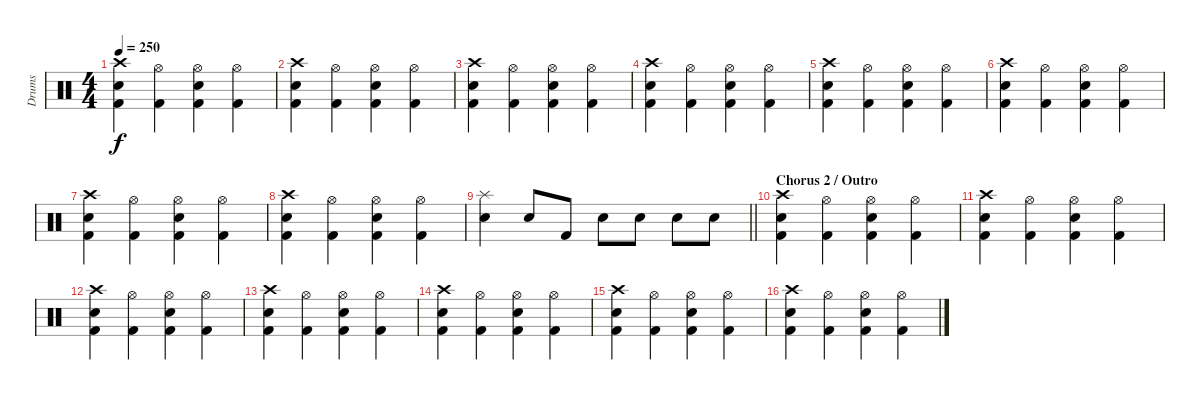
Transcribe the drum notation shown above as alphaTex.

\track ("Drums" "Drums") {instrument percussion}
\staff {score}
\articulation defaults
\ts (4 4)
\tempo 250
\clef neutral
\ks c
("Crash high (hit)" "Electric Snare (hit)" "Kick (hit) 2").4{dy f} ("Hi-Hat (open)" "Kick (hit) 2").4 ("Hi-Hat (open)" "Electric Snare (hit)" "Kick (hit) 2").4 ("Hi-Hat (open)" "Kick (hit) 2").4 |
("Crash high (hit)" "Electric Snare (hit)" "Kick (hit) 2").4 ("Hi-Hat (open)" "Kick (hit) 2").4 ("Hi-Hat (open)" "Electric Snare (hit)" "Kick (hit) 2").4 ("Hi-Hat (open)" "Kick (hit) 2").4 |
("Crash high (hit)" "Electric Snare (hit)" "Kick (hit) 2").4 ("Hi-Hat (open)" "Kick (hit) 2").4 ("Hi-Hat (open)" "Electric Snare (hit)" "Kick (hit) 2").4 ("Hi-Hat (open)" "Kick (hit) 2").4 |
("Crash high (hit)" "Electric Snare (hit)" "Kick (hit) 2").4 ("Hi-Hat (open)" "Kick (hit) 2").4 ("Hi-Hat (open)" "Electric Snare (hit)" "Kick (hit) 2").4 ("Hi-Hat (open)" "Kick (hit) 2").4 |
("Crash high (hit)" "Electric Snare (hit)" "Kick (hit) 2").4 ("Hi-Hat (open)" "Kick (hit) 2").4 ("Hi-Hat (open)" "Electric Snare (hit)" "Kick (hit) 2").4 ("Hi-Hat (open)" "Kick (hit) 2").4 |
("Crash high (hit)" "Electric Snare (hit)" "Kick (hit) 2").4 ("Hi-Hat (open)" "Kick (hit) 2").4 ("Hi-Hat (open)" "Electric Snare (hit)" "Kick (hit) 2").4 ("Hi-Hat (open)" "Kick (hit) 2").4 |
("Crash high (hit)" "Electric Snare (hit)" "Kick (hit) 2").4 ("Hi-Hat (open)" "Kick (hit) 2").4 ("Hi-Hat (open)" "Electric Snare (hit)" "Kick (hit) 2").4 ("Hi-Hat (open)" "Kick (hit) 2").4 |
("Crash high (hit)" "Electric Snare (hit)" "Kick (hit) 2").4 ("Hi-Hat (open)" "Kick (hit) 2").4 ("Hi-Hat (open)" "Electric Snare (hit)" "Kick (hit) 2").4 ("Hi-Hat (open)" "Kick (hit) 2").4 |
\barLineRight lightlight
("Splash (hit)" "Electric Snare (hit)").4 "Electric Snare (hit)".8 "Kick (hit) 2".8 "Electric Snare (hit)".8 "Electric Snare (hit)".8 "Electric Snare (hit)".8 "Electric Snare (hit)".8 |
\section ("" "Chorus 2 / Outro")
("Crash high (hit)" "Electric Snare (hit)" "Kick (hit) 2").4 ("Hi-Hat (open)" "Kick (hit) 2").4 ("Hi-Hat (open)" "Electric Snare (hit)" "Kick (hit) 2").4 ("Hi-Hat (open)" "Kick (hit) 2").4 |
("Crash high (hit)" "Electric Snare (hit)" "Kick (hit) 2").4 ("Hi-Hat (open)" "Kick (hit) 2").4 ("Hi-Hat (open)" "Electric Snare (hit)" "Kick (hit) 2").4 ("Hi-Hat (open)" "Kick (hit) 2").4 |
("Crash high (hit)" "Electric Snare (hit)" "Kick (hit) 2").4 ("Hi-Hat (open)" "Kick (hit) 2").4 ("Hi-Hat (open)" "Electric Snare (hit)" "Kick (hit) 2").4 ("Hi-Hat (open)" "Kick (hit) 2").4 |
("Crash high (hit)" "Electric Snare (hit)" "Kick (hit) 2").4 ("Hi-Hat (open)" "Kick (hit) 2").4 ("Hi-Hat (open)" "Electric Snare (hit)" "Kick (hit) 2").4 ("Hi-Hat (open)" "Kick (hit) 2").4 |
("Crash high (hit)" "Electric Snare (hit)" "Kick (hit) 2").4 ("Hi-Hat (open)" "Kick (hit) 2").4 ("Hi-Hat (open)" "Electric Snare (hit)" "Kick (hit) 2").4 ("Hi-Hat (open)" "Kick (hit) 2").4 |
("Crash high (hit)" "Electric Snare (hit)" "Kick (hit) 2").4 ("Hi-Hat (open)" "Kick (hit) 2").4 ("Hi-Hat (open)" "Electric Snare (hit)" "Kick (hit) 2").4 ("Hi-Hat (open)" "Kick (hit) 2").4 |
("Crash high (hit)" "Electric Snare (hit)" "Kick (hit) 2").4 ("Hi-Hat (open)" "Kick (hit) 2").4 ("Hi-Hat (open)" "Electric Snare (hit)" "Kick (hit) 2").4 ("Hi-Hat (open)" "Kick (hit) 2").4
